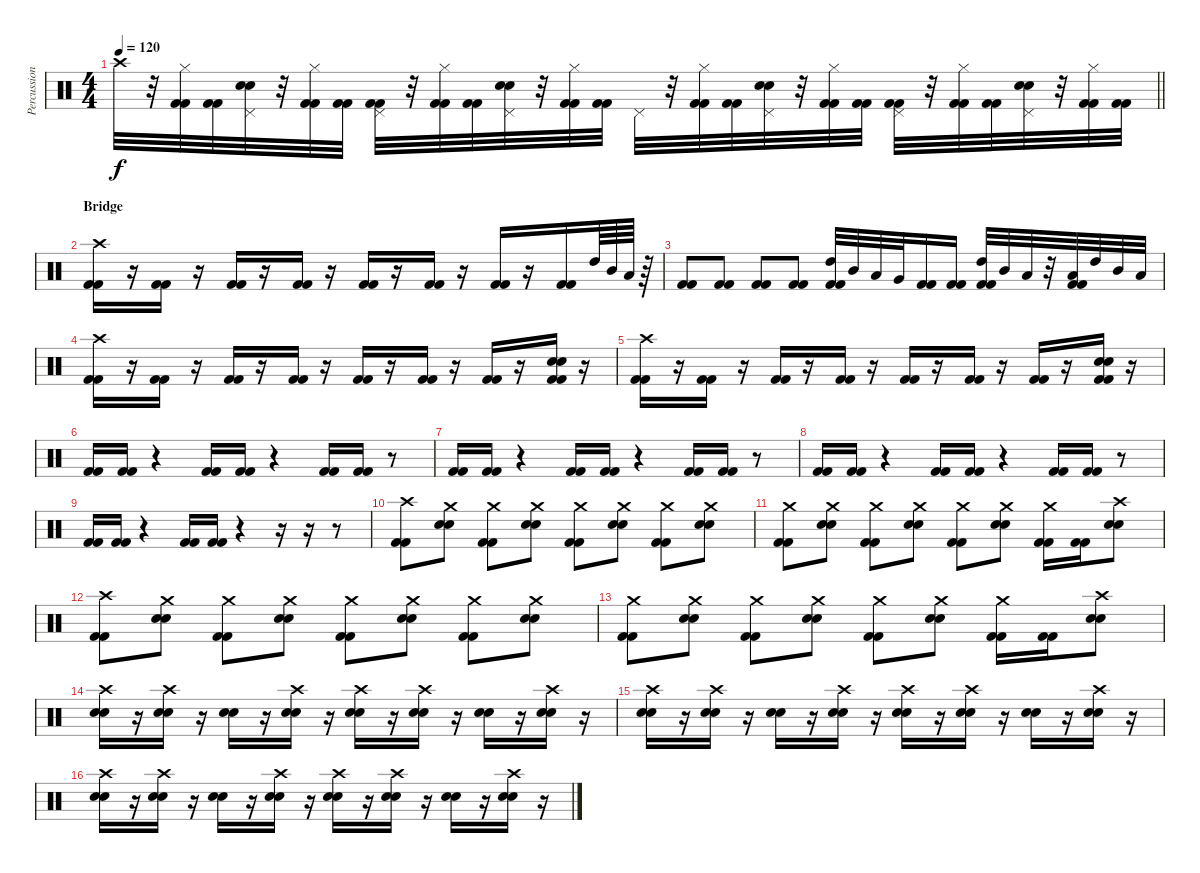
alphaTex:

\track ("Percussions" "Percussion") {instrument percussion}
\staff {score}
\articulation defaults
\ts (4 4)
\tempo 120
\clef neutral
\barLineRight lightlight
\ks c "Crash high (hit)".32{dy f}
r.32 ("Hi-Hat (closed)" "Kick (hit) 2" "Kick (hit) 2").32 ("Kick (hit) 2" "Kick (hit) 2").32 ("Pedal Hi-Hat (hit)" "Snare (hit) 2" "Electric Snare (hit)").32 r.32 ("Hi-Hat (closed)" "Kick (hit) 2" "Kick (hit) 2").32 ("Kick (hit) 2" "Kick (hit) 2").32 ("Pedal Hi-Hat (hit)" "Kick (hit) 2" "Kick (hit) 2").32 r.32 ("Hi-Hat (closed)" "Kick (hit) 2" "Kick (hit) 2").32 ("Kick (hit) 2" "Kick (hit) 2").32 ("Pedal Hi-Hat (hit)" "Snare (hit) 2" "Electric Snare (hit)").32 r.32 ("Hi-Hat (closed)" "Kick (hit) 2" "Kick (hit) 2").32 ("Kick (hit) 2" "Kick (hit) 2").32 "Pedal Hi-Hat (hit)".32 r.32 ("Hi-Hat (closed)" "Kick (hit) 2" "Kick (hit) 2").32 ("Kick (hit) 2" "Kick (hit) 2").32 ("Pedal Hi-Hat (hit)" "Snare (hit) 2" "Electric Snare (hit)").32 r.32 ("Hi-Hat (closed)" "Kick (hit) 2" "Kick (hit) 2").32 ("Kick (hit) 2" "Kick (hit) 2").32 ("Pedal Hi-Hat (hit)" "Kick (hit) 2" "Kick (hit) 2").32 r.32 ("Hi-Hat (closed)" "Kick (hit) 2" "Kick (hit) 2").32 ("Kick (hit) 2" "Kick (hit) 2").32 ("Pedal Hi-Hat (hit)" "Snare (hit) 2" "Electric Snare (hit)").32 r.32 ("Hi-Hat (closed)" "Kick (hit) 2" "Kick (hit) 2").32 ("Kick (hit) 2" "Kick (hit) 2").32 |
\section ("" "Bridge")
("Crash high (hit)" "Kick (hit) 2" "Kick (hit) 2").16 r.16 ("Kick (hit) 2" "Kick (hit) 2").16 r.16 ("Kick (hit) 2" "Kick (hit) 2").16 r.16 ("Kick (hit) 2" "Kick (hit) 2").16 r.16 ("Kick (hit) 2" "Kick (hit) 2").16 r.16 ("Kick (hit) 2" "Kick (hit) 2").16 r.16 ("Kick (hit) 2" "Kick (hit) 2").16 r.16 ("Kick (hit) 2" "Kick (hit) 2").16 "High Tom (hit)".64 "Mid Tom (hit)".64 "Low Tom (hit)".64 r.64 |
("Kick (hit) 2" "Kick (hit) 2").8 ("Kick (hit) 2" "Kick (hit) 2").8 ("Kick (hit) 2" "Kick (hit) 2").8 ("Kick (hit) 2" "Kick (hit) 2").8 ("High Tom (hit)" "Kick (hit) 2" "Kick (hit) 2").32 "Mid Tom (hit)".32 "Low Tom (hit)".32 "Very Low Tom (hit)".32 ("Kick (hit) 2" "Kick (hit) 2").16 ("Kick (hit) 2" "Kick (hit) 2").16 ("High Tom (hit)" "Kick (hit) 2" "Kick (hit) 2").32 "Mid Tom (hit)".32 "Low Tom (hit)".32 r.32 ("Low Floor Tom (hit)" "Kick (hit) 2" "Kick (hit) 2").32 "High Tom (hit)".32 "Mid Tom (hit)".32 "Low Tom (hit)".32 |
("Crash high (hit)" "Kick (hit) 2" "Kick (hit) 2").16 r.16 ("Kick (hit) 2" "Kick (hit) 2").16 r.16 ("Kick (hit) 2" "Kick (hit) 2").16 r.16 ("Kick (hit) 2" "Kick (hit) 2").16 r.16 ("Kick (hit) 2" "Kick (hit) 2").16 r.16 ("Kick (hit) 2" "Kick (hit) 2").16 r.16 ("Kick (hit) 2" "Kick (hit) 2").16 r.16 ("Snare (hit) 2" "Electric Snare (hit)" "Kick (hit) 2" "Kick (hit) 2").16 r.16 |
("Crash high (hit)" "Kick (hit) 2" "Kick (hit) 2").16 r.16 ("Kick (hit) 2" "Kick (hit) 2").16 r.16 ("Kick (hit) 2" "Kick (hit) 2").16 r.16 ("Kick (hit) 2" "Kick (hit) 2").16 r.16 ("Kick (hit) 2" "Kick (hit) 2").16 r.16 ("Kick (hit) 2" "Kick (hit) 2").16 r.16 ("Kick (hit) 2" "Kick (hit) 2").16 r.16 ("Snare (hit) 2" "Electric Snare (hit)" "Kick (hit) 2" "Kick (hit) 2").16 r.16 |
("Kick (hit) 2" "Kick (hit) 2").16 ("Kick (hit) 2" "Kick (hit) 2").16 r.4 ("Kick (hit) 2" "Kick (hit) 2").16 ("Kick (hit) 2" "Kick (hit) 2").16 r.4 ("Kick (hit) 2" "Kick (hit) 2").16 ("Kick (hit) 2" "Kick (hit) 2").16 r.8 |
("Kick (hit) 2" "Kick (hit) 2").16 ("Kick (hit) 2" "Kick (hit) 2").16 r.4 ("Kick (hit) 2" "Kick (hit) 2").16 ("Kick (hit) 2" "Kick (hit) 2").16 r.4 ("Kick (hit) 2" "Kick (hit) 2").16 ("Kick (hit) 2" "Kick (hit) 2").16 r.8 |
("Kick (hit) 2" "Kick (hit) 2").16 ("Kick (hit) 2" "Kick (hit) 2").16 r.4 ("Kick (hit) 2" "Kick (hit) 2").16 ("Kick (hit) 2" "Kick (hit) 2").16 r.4 ("Kick (hit) 2" "Kick (hit) 2").16 ("Kick (hit) 2" "Kick (hit) 2").16 r.8 |
("Kick (hit) 2" "Kick (hit) 2").16 ("Kick (hit) 2" "Kick (hit) 2").16 r.4 ("Kick (hit) 2" "Kick (hit) 2").16 ("Kick (hit) 2" "Kick (hit) 2").16 r.4 r.16 r.16 r.8 |
("Crash high (hit)" "Kick (hit) 2" "Kick (hit) 2").8 ("Crash medium (hit)" "Snare (hit) 2" "Electric Snare (hit)").8 ("Crash medium (hit)" "Kick (hit) 2" "Kick (hit) 2").8 ("Crash medium (hit)" "Snare (hit) 2" "Electric Snare (hit)").8 ("Crash medium (hit)" "Kick (hit) 2" "Kick (hit) 2").8 ("Crash medium (hit)" "Snare (hit) 2" "Electric Snare (hit)").8 ("Crash medium (hit)" "Kick (hit) 2" "Kick (hit) 2").8 ("Crash medium (hit)" "Snare (hit) 2" "Electric Snare (hit)").8 |
("Crash medium (hit)" "Kick (hit) 2" "Kick (hit) 2").8 ("Crash medium (hit)" "Snare (hit) 2" "Electric Snare (hit)").8 ("Crash medium (hit)" "Kick (hit) 2" "Kick (hit) 2").8 ("Crash medium (hit)" "Snare (hit) 2" "Electric Snare (hit)").8 ("Crash medium (hit)" "Kick (hit) 2" "Kick (hit) 2").8 ("Crash medium (hit)" "Snare (hit) 2" "Electric Snare (hit)").8 ("Crash medium (hit)" "Kick (hit) 2" "Kick (hit) 2").16 ("Kick (hit) 2" "Kick (hit) 2").16 ("Crash high (hit)" "Snare (hit) 2" "Electric Snare (hit)").8 |
("Crash high (hit)" "Kick (hit) 2" "Kick (hit) 2").8 ("Crash medium (hit)" "Snare (hit) 2" "Electric Snare (hit)").8 ("Crash medium (hit)" "Kick (hit) 2" "Kick (hit) 2").8 ("Crash medium (hit)" "Snare (hit) 2" "Electric Snare (hit)").8 ("Crash medium (hit)" "Kick (hit) 2" "Kick (hit) 2").8 ("Crash medium (hit)" "Snare (hit) 2" "Electric Snare (hit)").8 ("Crash medium (hit)" "Kick (hit) 2" "Kick (hit) 2").8 ("Crash medium (hit)" "Snare (hit) 2" "Electric Snare (hit)").8 |
("Crash medium (hit)" "Kick (hit) 2" "Kick (hit) 2").8 ("Crash medium (hit)" "Snare (hit) 2" "Electric Snare (hit)").8 ("Crash medium (hit)" "Kick (hit) 2" "Kick (hit) 2").8 ("Crash medium (hit)" "Snare (hit) 2" "Electric Snare (hit)").8 ("Crash medium (hit)" "Kick (hit) 2" "Kick (hit) 2").8 ("Crash medium (hit)" "Snare (hit) 2" "Electric Snare (hit)").8 ("Crash medium (hit)" "Kick (hit) 2" "Kick (hit) 2").16 ("Kick (hit) 2" "Kick (hit) 2").16 ("Crash high (hit)" "Snare (hit) 2" "Electric Snare (hit)").8 |
("Crash high (hit)" "Snare (hit) 2" "Electric Snare (hit)").16 r.16 ("Crash high (hit)" "Snare (hit) 2" "Electric Snare (hit)").16 r.16 ("Snare (hit) 2" "Electric Snare (hit)").16 r.16 ("Crash high (hit)" "Snare (hit) 2" "Electric Snare (hit)").16 r.16 ("Crash high (hit)" "Snare (hit) 2" "Electric Snare (hit)").16 r.16 ("Crash high (hit)" "Snare (hit) 2" "Electric Snare (hit)").16 r.16 ("Snare (hit) 2" "Electric Snare (hit)").16 r.16 ("Crash high (hit)" "Snare (hit) 2" "Electric Snare (hit)").16 r.16 |
("Crash high (hit)" "Snare (hit) 2" "Electric Snare (hit)").16 r.16 ("Crash high (hit)" "Snare (hit) 2" "Electric Snare (hit)").16 r.16 ("Snare (hit) 2" "Electric Snare (hit)").16 r.16 ("Crash high (hit)" "Snare (hit) 2" "Electric Snare (hit)").16 r.16 ("Crash high (hit)" "Snare (hit) 2" "Electric Snare (hit)").16 r.16 ("Crash high (hit)" "Snare (hit) 2" "Electric Snare (hit)").16 r.16 ("Snare (hit) 2" "Electric Snare (hit)").16 r.16 ("Crash high (hit)" "Snare (hit) 2" "Electric Snare (hit)").16 r.16 |
("Crash high (hit)" "Snare (hit) 2" "Electric Snare (hit)").16 r.16 ("Crash high (hit)" "Snare (hit) 2" "Electric Snare (hit)").16 r.16 ("Snare (hit) 2" "Electric Snare (hit)").16 r.16 ("Crash high (hit)" "Snare (hit) 2" "Electric Snare (hit)").16 r.16 ("Crash high (hit)" "Snare (hit) 2" "Electric Snare (hit)").16 r.16 ("Crash high (hit)" "Snare (hit) 2" "Electric Snare (hit)").16 r.16 ("Snare (hit) 2" "Electric Snare (hit)").16 r.16 ("Crash high (hit)" "Snare (hit) 2" "Electric Snare (hit)").16 r.16
